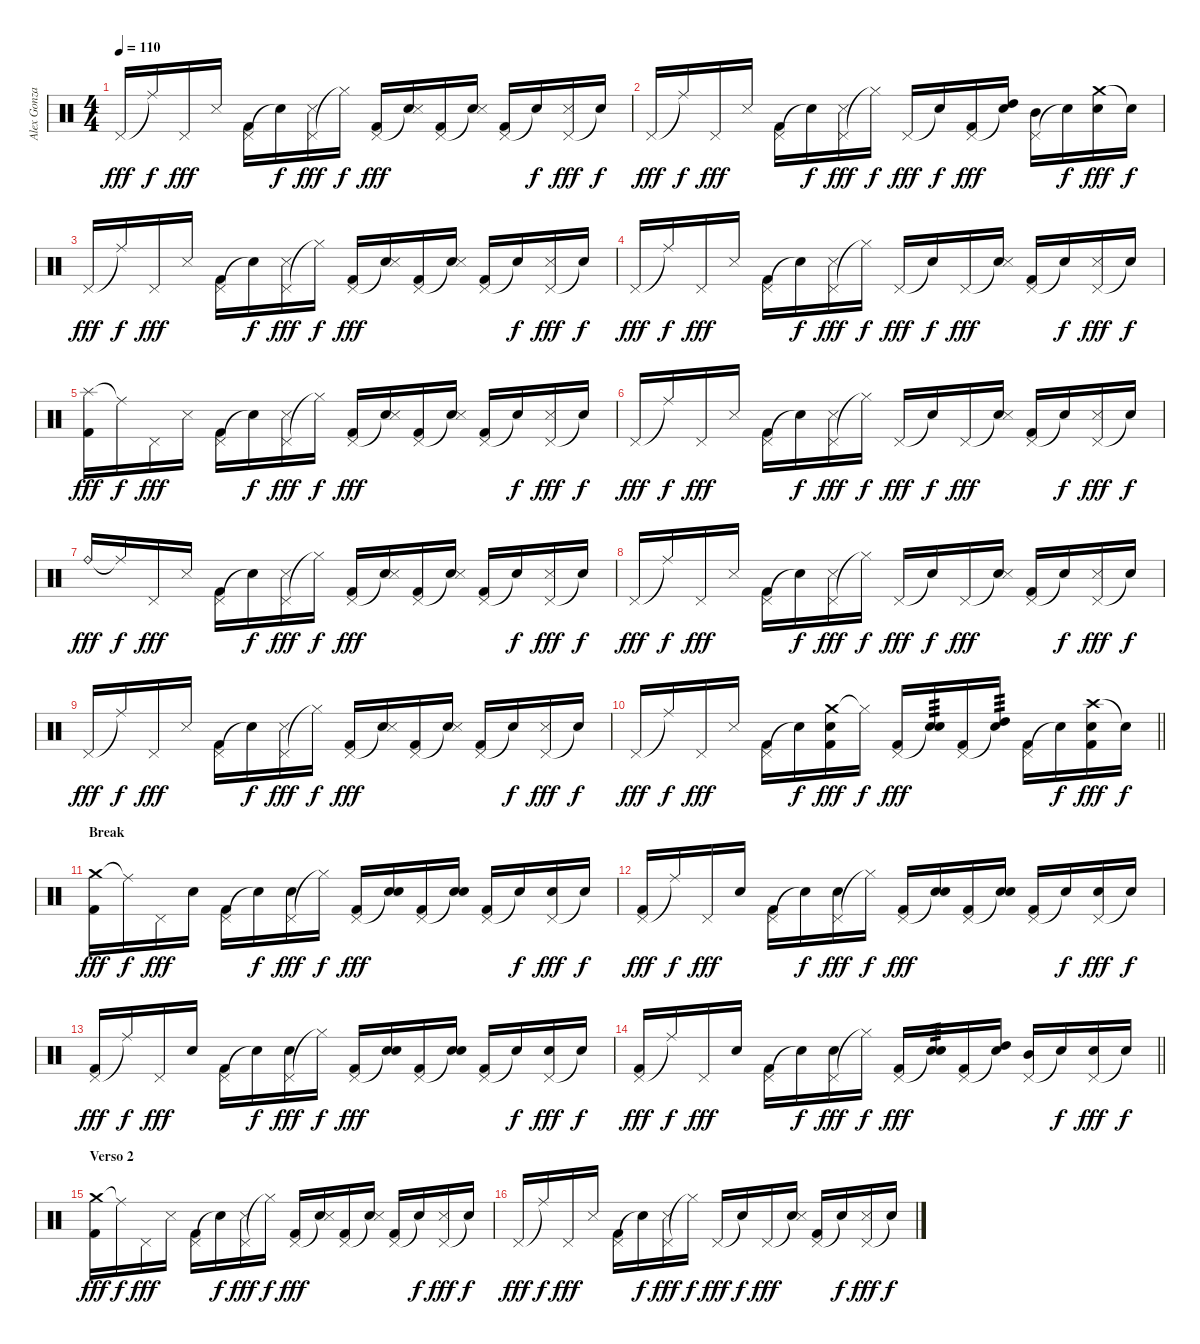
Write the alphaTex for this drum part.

\track ("Alex Gonzalez" "Alex Gonza") {instrument percussion}
\staff {score}
\articulation defaults
\ts (4 4)
\tempo 110
\clef neutral
\ks c "Pedal Hi-Hat (hit)".16{dy fff} "Ride (middle)"{t}.16{dy f} "Pedal Hi-Hat (hit)".16{dy fff} "Snare (side stick) 3".16
("Pedal Hi-Hat (hit)" "Kick (hit) 2").16 "Snare (hit)"{t}.16{dy f} ("Pedal Hi-Hat (hit)" "Snare (side stick) 3").16{dy fff} "Hi-Hat (closed)"{t}.16{dy f} ("Pedal Hi-Hat (hit)" "Kick (hit) 2").16{dy fff} ("Snare (hit)"{t} "Snare (side stick) 3").16 ("Pedal Hi-Hat (hit)" "Kick (hit) 2").16 ("Snare (hit)"{t} "Snare (side stick) 3").16 ("Pedal Hi-Hat (hit)" "Kick (hit) 2").16 "Snare (hit)"{t}.16{dy f} ("Pedal Hi-Hat (hit)" "Snare (side stick) 3").16{dy fff} "Snare (hit)"{t}.16{dy f} |
"Pedal Hi-Hat (hit)".16{dy fff} "Ride (middle)"{t}.16{dy f} "Pedal Hi-Hat (hit)".16{dy fff} "Snare (side stick) 3".16 ("Pedal Hi-Hat (hit)" "Kick (hit) 2").16 "Snare (hit)"{t}.16{dy f} ("Pedal Hi-Hat (hit)" "Snare (side stick) 3").16{dy fff} "Hi-Hat (closed)"{t}.16{dy f} "Pedal Hi-Hat (hit)".16{dy fff} "Snare (hit)"{t}.16{dy f} ("Pedal Hi-Hat (hit)" "Kick (hit) 2").16{dy fff} ("Snare (hit)"{t} "High Tom (hit)").16 ("Pedal Hi-Hat (hit)" "Mid Tom (hit)").16 "Snare (hit)"{t}.16{dy f} ("Crash medium (hit)" "Electric Snare (hit)").16{dy fff} "Snare (hit)"{t}.16{dy f} |
"Pedal Hi-Hat (hit)".16{dy fff} "Ride (middle)"{t}.16{dy f} "Pedal Hi-Hat (hit)".16{dy fff} "Snare (side stick) 3".16 ("Pedal Hi-Hat (hit)" "Kick (hit) 2").16 "Snare (hit)"{t}.16{dy f} ("Pedal Hi-Hat (hit)" "Snare (side stick) 3").16{dy fff} "Hi-Hat (closed)"{t}.16{dy f} ("Pedal Hi-Hat (hit)" "Kick (hit) 2").16{dy fff} ("Snare (hit)"{t} "Snare (side stick) 3").16 ("Pedal Hi-Hat (hit)" "Kick (hit) 2").16 ("Snare (hit)"{t} "Snare (side stick) 3").16 ("Pedal Hi-Hat (hit)" "Kick (hit) 2").16 "Snare (hit)"{t}.16{dy f} ("Pedal Hi-Hat (hit)" "Snare (side stick) 3").16{dy fff} "Snare (hit)"{t}.16{dy f} |
"Pedal Hi-Hat (hit)".16{dy fff} "Ride (middle)"{t}.16{dy f} "Pedal Hi-Hat (hit)".16{dy fff} "Snare (side stick) 3".16 ("Pedal Hi-Hat (hit)" "Kick (hit) 2").16 "Snare (hit)"{t}.16{dy f} ("Pedal Hi-Hat (hit)" "Snare (side stick) 3").16{dy fff} "Hi-Hat (closed)"{t}.16{dy f} "Pedal Hi-Hat (hit)".16{dy fff} "Snare (hit)"{t}.16{dy f} "Pedal Hi-Hat (hit)".16{dy fff} ("Snare (hit)"{t} "Snare (side stick) 3").16 ("Pedal Hi-Hat (hit)" "Kick (hit) 2").16 "Snare (hit)"{t}.16{dy f} ("Pedal Hi-Hat (hit)" "Snare (side stick) 3").16{dy fff} "Snare (hit)"{t}.16{dy f} |
("Splash (hit)" "Kick (hit) 2").16{dy fff} "Ride (middle)"{t}.16{dy f} "Pedal Hi-Hat (hit)".16{dy fff} "Snare (side stick) 3".16 ("Pedal Hi-Hat (hit)" "Kick (hit) 2").16 "Snare (hit)"{t}.16{dy f} ("Pedal Hi-Hat (hit)" "Snare (side stick) 3").16{dy fff} "Hi-Hat (closed)"{t}.16{dy f} ("Pedal Hi-Hat (hit)" "Kick (hit) 2").16{dy fff} ("Snare (hit)"{t} "Snare (side stick) 3").16 ("Pedal Hi-Hat (hit)" "Kick (hit) 2").16 ("Snare (hit)"{t} "Snare (side stick) 3").16 ("Pedal Hi-Hat (hit)" "Kick (hit) 2").16 "Snare (hit)"{t}.16{dy f} ("Pedal Hi-Hat (hit)" "Snare (side stick) 3").16{dy fff} "Snare (hit)"{t}.16{dy f} |
"Pedal Hi-Hat (hit)".16{dy fff} "Ride (middle)"{t}.16{dy f} "Pedal Hi-Hat (hit)".16{dy fff} "Snare (side stick) 3".16 ("Pedal Hi-Hat (hit)" "Kick (hit) 2").16 "Snare (hit)"{t}.16{dy f} ("Pedal Hi-Hat (hit)" "Snare (side stick) 3").16{dy fff} "Hi-Hat (closed)"{t}.16{dy f} "Pedal Hi-Hat (hit)".16{dy fff} "Snare (hit)"{t}.16{dy f} "Pedal Hi-Hat (hit)".16{dy fff} ("Snare (hit)"{t} "Snare (side stick) 3").16 ("Pedal Hi-Hat (hit)" "Kick (hit) 2").16 "Snare (hit)"{t}.16{dy f} ("Pedal Hi-Hat (hit)" "Snare (side stick) 3").16{dy fff} "Snare (hit)"{t}.16{dy f} |
"Ride (bell)".16{dy fff} "Ride (middle)"{t}.16{dy f} "Pedal Hi-Hat (hit)".16{dy fff} "Snare (side stick) 3".16 ("Pedal Hi-Hat (hit)" "Kick (hit) 2").16 "Snare (hit)"{t}.16{dy f} ("Pedal Hi-Hat (hit)" "Snare (side stick) 3").16{dy fff} "Hi-Hat (closed)"{t}.16{dy f} ("Pedal Hi-Hat (hit)" "Kick (hit) 2").16{dy fff} ("Snare (hit)"{t} "Snare (side stick) 3").16 ("Pedal Hi-Hat (hit)" "Kick (hit) 2").16 ("Snare (hit)"{t} "Snare (side stick) 3").16 ("Pedal Hi-Hat (hit)" "Kick (hit) 2").16 "Snare (hit)"{t}.16{dy f} ("Pedal Hi-Hat (hit)" "Snare (side stick) 3").16{dy fff} "Snare (hit)"{t}.16{dy f} |
"Pedal Hi-Hat (hit)".16{dy fff} "Ride (middle)"{t}.16{dy f} "Pedal Hi-Hat (hit)".16{dy fff} "Snare (side stick) 3".16 ("Pedal Hi-Hat (hit)" "Kick (hit) 2").16 "Snare (hit)"{t}.16{dy f} ("Pedal Hi-Hat (hit)" "Snare (side stick) 3").16{dy fff} "Hi-Hat (closed)"{t}.16{dy f} "Pedal Hi-Hat (hit)".16{dy fff} "Snare (hit)"{t}.16{dy f} "Pedal Hi-Hat (hit)".16{dy fff} ("Snare (hit)"{t} "Snare (side stick) 3").16 ("Pedal Hi-Hat (hit)" "Kick (hit) 2").16 "Snare (hit)"{t}.16{dy f} ("Pedal Hi-Hat (hit)" "Snare (side stick) 3").16{dy fff} "Snare (hit)"{t}.16{dy f} |
"Pedal Hi-Hat (hit)".16{dy fff} "Ride (middle)"{t}.16{dy f} "Pedal Hi-Hat (hit)".16{dy fff} "Snare (side stick) 3".16 ("Pedal Hi-Hat (hit)" "Kick (hit) 2").16 "Snare (hit)"{t}.16{dy f} ("Pedal Hi-Hat (hit)" "Snare (side stick) 3").16{dy fff} "Hi-Hat (closed)"{t}.16{dy f} ("Pedal Hi-Hat (hit)" "Kick (hit) 2").16{dy fff} ("Snare (hit)"{t} "Snare (side stick) 3").16 ("Pedal Hi-Hat (hit)" "Kick (hit) 2").16 ("Snare (hit)"{t} "Snare (side stick) 3").16 ("Pedal Hi-Hat (hit)" "Kick (hit) 2").16 "Snare (hit)"{t}.16{dy f} ("Pedal Hi-Hat (hit)" "Snare (side stick) 3").16{dy fff} "Snare (hit)"{t}.16{dy f} |
\barLineRight lightlight "Pedal Hi-Hat (hit)".16{dy fff} "Ride (middle)"{t}.16{dy f} "Pedal Hi-Hat (hit)".16{dy fff} "Snare (side stick) 3".16
("Pedal Hi-Hat (hit)" "Kick (hit) 2").16 "Snare (hit)"{t}.16{dy f} ("Crash medium (hit)" "Electric Snare (hit)" "Kick (hit) 2").16{dy fff} "Hi-Hat (closed)"{t}.16{dy f} ("Pedal Hi-Hat (hit)" "Kick (hit) 2").16{dy fff} ("Snare (hit)"{t} "Electric Snare (hit)").16{tp 3} ("Pedal Hi-Hat (hit)" "Kick (hit) 2").16 ("Snare (hit)"{t} "High Tom (hit)").16{tp 3} ("Pedal Hi-Hat (hit)" "Kick (hit) 2").16 "Snare (hit)"{t}.16{dy f} ("Crash high (hit)" "Electric Snare (hit)" "Kick (hit) 2").16{dy fff} "Snare (hit)"{t}.16{dy f} |
\section ("" "Break")
("Crash medium (hit)" "Kick (hit) 2").16{dy fff} "Ride (middle)"{t}.16{dy f} "Pedal Hi-Hat (hit)".16{dy fff} "Electric Snare (hit)".16 ("Pedal Hi-Hat (hit)" "Kick (hit) 2").16 "Snare (hit)"{t}.16{dy f} ("Pedal Hi-Hat (hit)" "Electric Snare (hit)").16{dy fff} "Hi-Hat (closed)"{t}.16{dy f} ("Pedal Hi-Hat (hit)" "Kick (hit) 2").16{dy fff} ("Snare (hit)"{t} "Electric Snare (hit)").16 ("Pedal Hi-Hat (hit)" "Kick (hit) 2").16 ("Snare (hit)"{t} "Electric Snare (hit)").16 ("Pedal Hi-Hat (hit)" "Kick (hit) 2").16 "Snare (hit)"{t}.16{dy f} ("Pedal Hi-Hat (hit)" "Electric Snare (hit)").16{dy fff} "Snare (hit)"{t}.16{dy f} |
("Pedal Hi-Hat (hit)" "Kick (hit) 2").16{dy fff} "Ride (middle)"{t}.16{dy f} "Pedal Hi-Hat (hit)".16{dy fff} "Electric Snare (hit)".16 ("Pedal Hi-Hat (hit)" "Kick (hit) 2").16 "Snare (hit)"{t}.16{dy f} ("Pedal Hi-Hat (hit)" "Electric Snare (hit)").16{dy fff} "Hi-Hat (closed)"{t}.16{dy f} ("Pedal Hi-Hat (hit)" "Kick (hit) 2").16{dy fff} ("Snare (hit)"{t} "Electric Snare (hit)").16 ("Pedal Hi-Hat (hit)" "Kick (hit) 2").16 ("Snare (hit)"{t} "Electric Snare (hit)").16 ("Pedal Hi-Hat (hit)" "Kick (hit) 2").16 "Snare (hit)"{t}.16{dy f} ("Pedal Hi-Hat (hit)" "Electric Snare (hit)").16{dy fff} "Snare (hit)"{t}.16{dy f} |
("Pedal Hi-Hat (hit)" "Kick (hit) 2").16{dy fff} "Ride (middle)"{t}.16{dy f} "Pedal Hi-Hat (hit)".16{dy fff} "Electric Snare (hit)".16 ("Pedal Hi-Hat (hit)" "Kick (hit) 2").16 "Snare (hit)"{t}.16{dy f} ("Pedal Hi-Hat (hit)" "Electric Snare (hit)").16{dy fff} "Hi-Hat (closed)"{t}.16{dy f} ("Pedal Hi-Hat (hit)" "Kick (hit) 2").16{dy fff} ("Snare (hit)"{t} "Electric Snare (hit)").16 ("Pedal Hi-Hat (hit)" "Kick (hit) 2").16 ("Snare (hit)"{t} "Electric Snare (hit)").16 ("Pedal Hi-Hat (hit)" "Kick (hit) 2").16 "Snare (hit)"{t}.16{dy f} ("Pedal Hi-Hat (hit)" "Electric Snare (hit)").16{dy fff} "Snare (hit)"{t}.16{dy f} |
\barLineRight lightlight
("Pedal Hi-Hat (hit)" "Kick (hit) 2").16{dy fff} "Ride (middle)"{t}.16{dy f} "Pedal Hi-Hat (hit)".16{dy fff} "Electric Snare (hit)".16 ("Pedal Hi-Hat (hit)" "Kick (hit) 2").16 "Snare (hit)"{t}.16{dy f} ("Pedal Hi-Hat (hit)" "Electric Snare (hit)").16{dy fff} "Hi-Hat (closed)"{t}.16{dy f} ("Pedal Hi-Hat (hit)" "Kick (hit) 2").16{dy fff} ("Snare (hit)"{t} "Electric Snare (hit)").16{tp 3} ("Pedal Hi-Hat (hit)" "Kick (hit) 2").16 ("Snare (hit)"{t} "High Tom (hit)").16 ("Pedal Hi-Hat (hit)" "Mid Tom (hit)").16 "Snare (hit)"{t}.16{dy f} ("Pedal Hi-Hat (hit)" "Electric Snare (hit)").16{dy fff} "Snare (hit)"{t}.16{dy f} |
\section ("" "Verso 2")
("Crash medium (hit)" "Kick (hit) 2").16{dy fff} "Ride (middle)"{t}.16{dy f} "Pedal Hi-Hat (hit)".16{dy fff} "Snare (side stick) 3".16 ("Pedal Hi-Hat (hit)" "Kick (hit) 2").16 "Snare (hit)"{t}.16{dy f} ("Pedal Hi-Hat (hit)" "Snare (side stick) 3").16{dy fff} "Hi-Hat (closed)"{t}.16{dy f} ("Pedal Hi-Hat (hit)" "Kick (hit) 2").16{dy fff} ("Snare (hit)"{t} "Snare (side stick) 3").16 ("Pedal Hi-Hat (hit)" "Kick (hit) 2").16 ("Snare (hit)"{t} "Snare (side stick) 3").16 ("Pedal Hi-Hat (hit)" "Kick (hit) 2").16 "Snare (hit)"{t}.16{dy f} ("Pedal Hi-Hat (hit)" "Snare (side stick) 3").16{dy fff} "Snare (hit)"{t}.16{dy f} |
"Pedal Hi-Hat (hit)".16{dy fff} "Ride (middle)"{t}.16{dy f} "Pedal Hi-Hat (hit)".16{dy fff} "Snare (side stick) 3".16 ("Pedal Hi-Hat (hit)" "Kick (hit) 2").16 "Snare (hit)"{t}.16{dy f} ("Pedal Hi-Hat (hit)" "Snare (side stick) 3").16{dy fff} "Hi-Hat (closed)"{t}.16{dy f} "Pedal Hi-Hat (hit)".16{dy fff} "Snare (hit)"{t}.16{dy f} "Pedal Hi-Hat (hit)".16{dy fff} ("Snare (hit)"{t} "Snare (side stick) 3").16 ("Pedal Hi-Hat (hit)" "Kick (hit) 2").16 "Snare (hit)"{t}.16{dy f} ("Pedal Hi-Hat (hit)" "Snare (side stick) 3").16{dy fff} "Snare (hit)"{t}.16{dy f}
